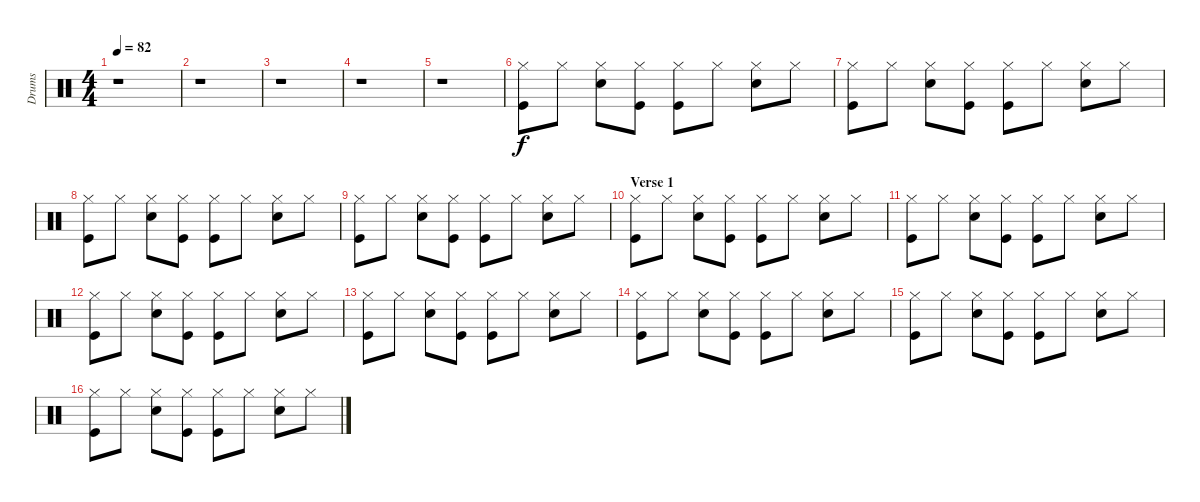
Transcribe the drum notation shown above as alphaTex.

\track ("Drums" "Drums") {instrument percussion}
\staff {score}
\articulation defaults
\ts (4 4)
\tempo 82
\clef neutral
\ks c
r.1{dy f} |
r.1 |
r.1 |
r.1 |
r.1 |
("Hi-Hat (closed)" "Kick (hit)").8 "Hi-Hat (closed)".8 ("Hi-Hat (closed)" "Electric Snare (hit)").8 ("Hi-Hat (closed)" "Kick (hit)").8 ("Hi-Hat (closed)" "Kick (hit)").8 "Hi-Hat (closed)".8 ("Hi-Hat (closed)" "Electric Snare (hit)").8 "Hi-Hat (closed)".8 |
("Hi-Hat (closed)" "Kick (hit)").8 "Hi-Hat (closed)".8 ("Hi-Hat (closed)" "Electric Snare (hit)").8 ("Hi-Hat (closed)" "Kick (hit)").8 ("Hi-Hat (closed)" "Kick (hit)").8 "Hi-Hat (closed)".8 ("Hi-Hat (closed)" "Electric Snare (hit)").8 "Hi-Hat (closed)".8 |
("Hi-Hat (closed)" "Kick (hit)").8 "Hi-Hat (closed)".8 ("Hi-Hat (closed)" "Electric Snare (hit)").8 ("Hi-Hat (closed)" "Kick (hit)").8 ("Hi-Hat (closed)" "Kick (hit)").8 "Hi-Hat (closed)".8 ("Hi-Hat (closed)" "Electric Snare (hit)").8 "Hi-Hat (closed)".8 |
("Hi-Hat (closed)" "Kick (hit)").8 "Hi-Hat (closed)".8 ("Hi-Hat (closed)" "Electric Snare (hit)").8 ("Hi-Hat (closed)" "Kick (hit)").8 ("Hi-Hat (closed)" "Kick (hit)").8 "Hi-Hat (closed)".8 ("Hi-Hat (closed)" "Electric Snare (hit)").8 "Hi-Hat (closed)".8 |
\section ("" "Verse 1")
("Hi-Hat (closed)" "Kick (hit)").8 "Hi-Hat (closed)".8 ("Hi-Hat (closed)" "Electric Snare (hit)").8 ("Hi-Hat (closed)" "Kick (hit)").8 ("Hi-Hat (closed)" "Kick (hit)").8 "Hi-Hat (closed)".8 ("Hi-Hat (closed)" "Electric Snare (hit)").8 "Hi-Hat (closed)".8 |
("Hi-Hat (closed)" "Kick (hit)").8 "Hi-Hat (closed)".8 ("Hi-Hat (closed)" "Electric Snare (hit)").8 ("Hi-Hat (closed)" "Kick (hit)").8 ("Hi-Hat (closed)" "Kick (hit)").8 "Hi-Hat (closed)".8 ("Hi-Hat (closed)" "Electric Snare (hit)").8 "Hi-Hat (closed)".8 |
("Hi-Hat (closed)" "Kick (hit)").8 "Hi-Hat (closed)".8 ("Hi-Hat (closed)" "Electric Snare (hit)").8 ("Hi-Hat (closed)" "Kick (hit)").8 ("Hi-Hat (closed)" "Kick (hit)").8 "Hi-Hat (closed)".8 ("Hi-Hat (closed)" "Electric Snare (hit)").8 "Hi-Hat (closed)".8 |
("Hi-Hat (closed)" "Kick (hit)").8 "Hi-Hat (closed)".8 ("Hi-Hat (closed)" "Electric Snare (hit)").8 ("Hi-Hat (closed)" "Kick (hit)").8 ("Hi-Hat (closed)" "Kick (hit)").8 "Hi-Hat (closed)".8 ("Hi-Hat (closed)" "Electric Snare (hit)").8 "Hi-Hat (closed)".8 |
("Hi-Hat (closed)" "Kick (hit)").8 "Hi-Hat (closed)".8 ("Hi-Hat (closed)" "Electric Snare (hit)").8 ("Hi-Hat (closed)" "Kick (hit)").8 ("Hi-Hat (closed)" "Kick (hit)").8 "Hi-Hat (closed)".8 ("Hi-Hat (closed)" "Electric Snare (hit)").8 "Hi-Hat (closed)".8 |
("Hi-Hat (closed)" "Kick (hit)").8 "Hi-Hat (closed)".8 ("Hi-Hat (closed)" "Electric Snare (hit)").8 ("Hi-Hat (closed)" "Kick (hit)").8 ("Hi-Hat (closed)" "Kick (hit)").8 "Hi-Hat (closed)".8 ("Hi-Hat (closed)" "Electric Snare (hit)").8 "Hi-Hat (closed)".8 |
("Hi-Hat (closed)" "Kick (hit)").8 "Hi-Hat (closed)".8 ("Hi-Hat (closed)" "Electric Snare (hit)").8 ("Hi-Hat (closed)" "Kick (hit)").8 ("Hi-Hat (closed)" "Kick (hit)").8 "Hi-Hat (closed)".8 ("Hi-Hat (closed)" "Electric Snare (hit)").8 "Hi-Hat (closed)".8
